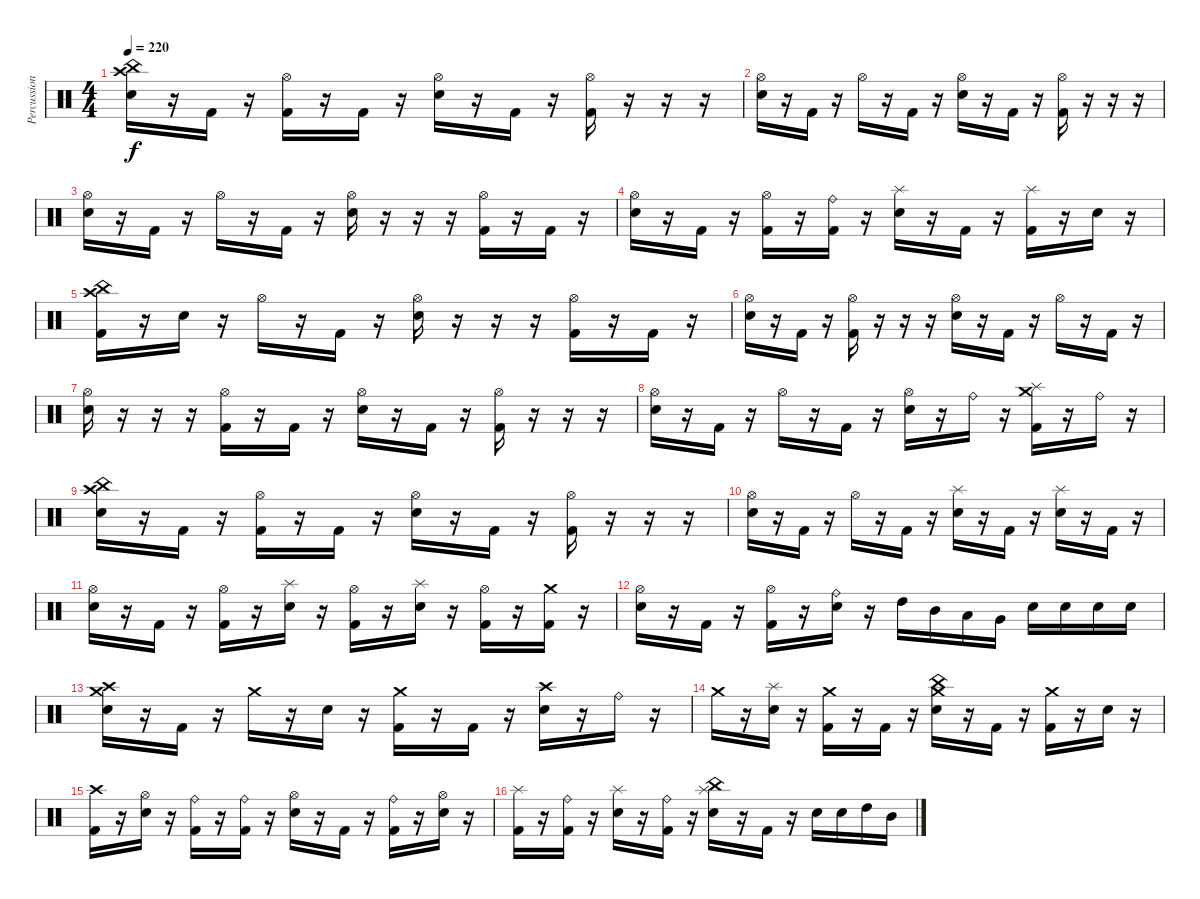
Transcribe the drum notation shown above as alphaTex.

\track ("Percussion" "Percussion") {instrument percussion}
\staff {score}
\articulation defaults
\ts (4 4)
\tempo 220
\clef neutral
\ks c
("Crash high (hit)" "China (hit)" "Electric Snare (hit)").16{dy f} r.16 "Kick (hit) 2".16 r.16 ("Hi-Hat (open)" "Kick (hit) 2").16 r.16 "Kick (hit) 2".16 r.16 ("Hi-Hat (open)" "Electric Snare (hit)").16 r.16 "Kick (hit) 2".16 r.16 ("Hi-Hat (open)" "Kick (hit) 2").16 r.16 r.16 r.16 |
("Hi-Hat (open)" "Electric Snare (hit)").16 r.16 "Kick (hit) 2".16 r.16 "Hi-Hat (open)".16 r.16 "Kick (hit) 2".16 r.16 ("Hi-Hat (open)" "Electric Snare (hit)").16 r.16 "Kick (hit) 2".16 r.16 ("Hi-Hat (open)" "Kick (hit) 2").16 r.16 r.16 r.16 |
("Hi-Hat (open)" "Electric Snare (hit)").16 r.16 "Kick (hit) 2".16 r.16 "Hi-Hat (open)".16 r.16 "Kick (hit) 2".16 r.16 ("Hi-Hat (open)" "Electric Snare (hit)").16 r.16 r.16 r.16 ("Hi-Hat (open)" "Kick (hit) 2").16 r.16 "Kick (hit) 2".16 r.16 |
("Hi-Hat (open)" "Electric Snare (hit)").16 r.16 "Kick (hit) 2".16 r.16 ("Hi-Hat (open)" "Kick (hit) 2").16 r.16 ("Ride (bell)" "Kick (hit) 2").16 r.16 ("Splash (hit)" "Electric Snare (hit)").16 r.16 "Kick (hit) 2".16 r.16 ("Splash (hit)" "Kick (hit) 2").16 r.16 "Electric Snare (hit)".16 r.16 |
("Crash high (hit)" "China (hit)" "Kick (hit) 2").16 r.16 "Electric Snare (hit)".16 r.16 "Hi-Hat (open)".16 r.16 "Kick (hit) 2".16 r.16 ("Hi-Hat (open)" "Electric Snare (hit)").16 r.16 r.16 r.16 ("Hi-Hat (open)" "Kick (hit) 2").16 r.16 "Kick (hit) 2".16 r.16 |
("Hi-Hat (open)" "Electric Snare (hit)").16 r.16 "Kick (hit) 2".16 r.16 ("Hi-Hat (open)" "Kick (hit) 2").16 r.16 r.16 r.16 ("Hi-Hat (open)" "Electric Snare (hit)").16 r.16 "Kick (hit) 2".16 r.16 "Hi-Hat (open)".16 r.16 "Kick (hit) 2".16 r.16 |
("Hi-Hat (open)" "Electric Snare (hit)").16 r.16 r.16 r.16 ("Hi-Hat (open)" "Kick (hit) 2").16 r.16 "Kick (hit) 2".16 r.16 ("Hi-Hat (open)" "Electric Snare (hit)").16 r.16 "Kick (hit) 2".16 r.16 ("Hi-Hat (open)" "Kick (hit) 2").16 r.16 r.16 r.16 |
("Hi-Hat (open)" "Electric Snare (hit)").16 r.16 "Kick (hit) 2".16 r.16 "Hi-Hat (open)".16 r.16 "Kick (hit) 2".16 r.16 ("Hi-Hat (open)" "Electric Snare (hit)").16 r.16 "Ride (bell)".16 r.16 ("Splash (hit)" "Crash medium (hit)" "Kick (hit) 2").16 r.16 "Ride (bell)".16 r.16 |
("Crash high (hit)" "China (hit)" "Electric Snare (hit)").16 r.16 "Kick (hit) 2".16 r.16 ("Hi-Hat (open)" "Kick (hit) 2").16 r.16 "Kick (hit) 2".16 r.16 ("Hi-Hat (open)" "Electric Snare (hit)").16 r.16 "Kick (hit) 2".16 r.16 ("Hi-Hat (open)" "Kick (hit) 2").16 r.16 r.16 r.16 |
("Hi-Hat (open)" "Electric Snare (hit)").16 r.16 "Kick (hit) 2".16 r.16 "Hi-Hat (open)".16 r.16 "Kick (hit) 2".16 r.16 ("Splash (hit)" "Electric Snare (hit)").16 r.16 "Kick (hit) 2".16 r.16 ("Splash (hit)" "Electric Snare (hit)").16 r.16 "Kick (hit) 2".16 r.16 |
("Hi-Hat (open)" "Electric Snare (hit)").16 r.16 "Kick (hit) 2".16 r.16 ("Hi-Hat (open)" "Kick (hit) 2").16 r.16 ("Splash (hit)" "Electric Snare (hit)").16 r.16 ("Hi-Hat (open)" "Kick (hit) 2").16 r.16 ("Splash (hit)" "Electric Snare (hit)").16 r.16 ("Hi-Hat (open)" "Kick (hit) 2").16 r.16 ("Crash medium (hit)" "Kick (hit) 2").16 r.16 |
("Hi-Hat (open)" "Electric Snare (hit)").16 r.16 "Kick (hit) 2".16 r.16 ("Hi-Hat (open)" "Kick (hit) 2").16 r.16 ("Ride (bell)" "Electric Snare (hit)").16 r.16 "High Tom (hit)".16 "Mid Tom (hit)".16 "Low Tom (hit)".16 "Very Low Tom (hit)".16 "Electric Snare (hit)".16 "Electric Snare (hit)".16 "Electric Snare (hit)".16 "Electric Snare (hit)".16 |
("Crash high (hit)" "Crash medium (hit)" "Electric Snare (hit)").16 r.16 "Kick (hit) 2".16 r.16 "Crash medium (hit)".16 r.16 "Electric Snare (hit)".16 r.16 ("Crash medium (hit)" "Kick (hit) 2").16 r.16 "Kick (hit) 2".16 r.16 ("Crash high (hit)" "Electric Snare (hit)").16 r.16 "Ride (bell)".16 r.16 |
"Crash medium (hit)".16 r.16 ("Splash (hit)" "Electric Snare (hit)").16 r.16 ("Crash medium (hit)" "Kick (hit) 2").16 r.16 "Kick (hit) 2".16 r.16 ("Crash medium (hit)" "China (hit)" "Electric Snare (hit)").16 r.16 "Kick (hit) 2".16 r.16 ("Crash medium (hit)" "Kick (hit) 2").16 r.16 "Electric Snare (hit)".16 r.16 |
("Crash high (hit)" "Kick (hit) 2").16 r.16 ("Hi-Hat (open)" "Electric Snare (hit)").16 r.16 ("Ride (bell)" "Kick (hit) 2").16 r.16 ("Ride (bell)" "Kick (hit) 2").16 r.16 ("Hi-Hat (open)" "Electric Snare (hit)").16 r.16 "Kick (hit) 2".16 r.16 ("Ride (bell)" "Kick (hit) 2").16 r.16 ("Hi-Hat (open)" "Electric Snare (hit)").16 r.16 |
("Splash (hit)" "Kick (hit) 2").16 r.16 ("Ride (bell)" "Kick (hit) 2").16 r.16 ("Splash (hit)" "Electric Snare (hit)").16 r.16 ("Ride (bell)" "Kick (hit) 2").16 r.16 ("Splash (hit)" "China (hit)" "Electric Snare (hit)").16 r.16 "Kick (hit) 2".16 r.16 "Electric Snare (hit)".16 "Electric Snare (hit)".16 "High Tom (hit)".16 "Mid Tom (hit)".16
